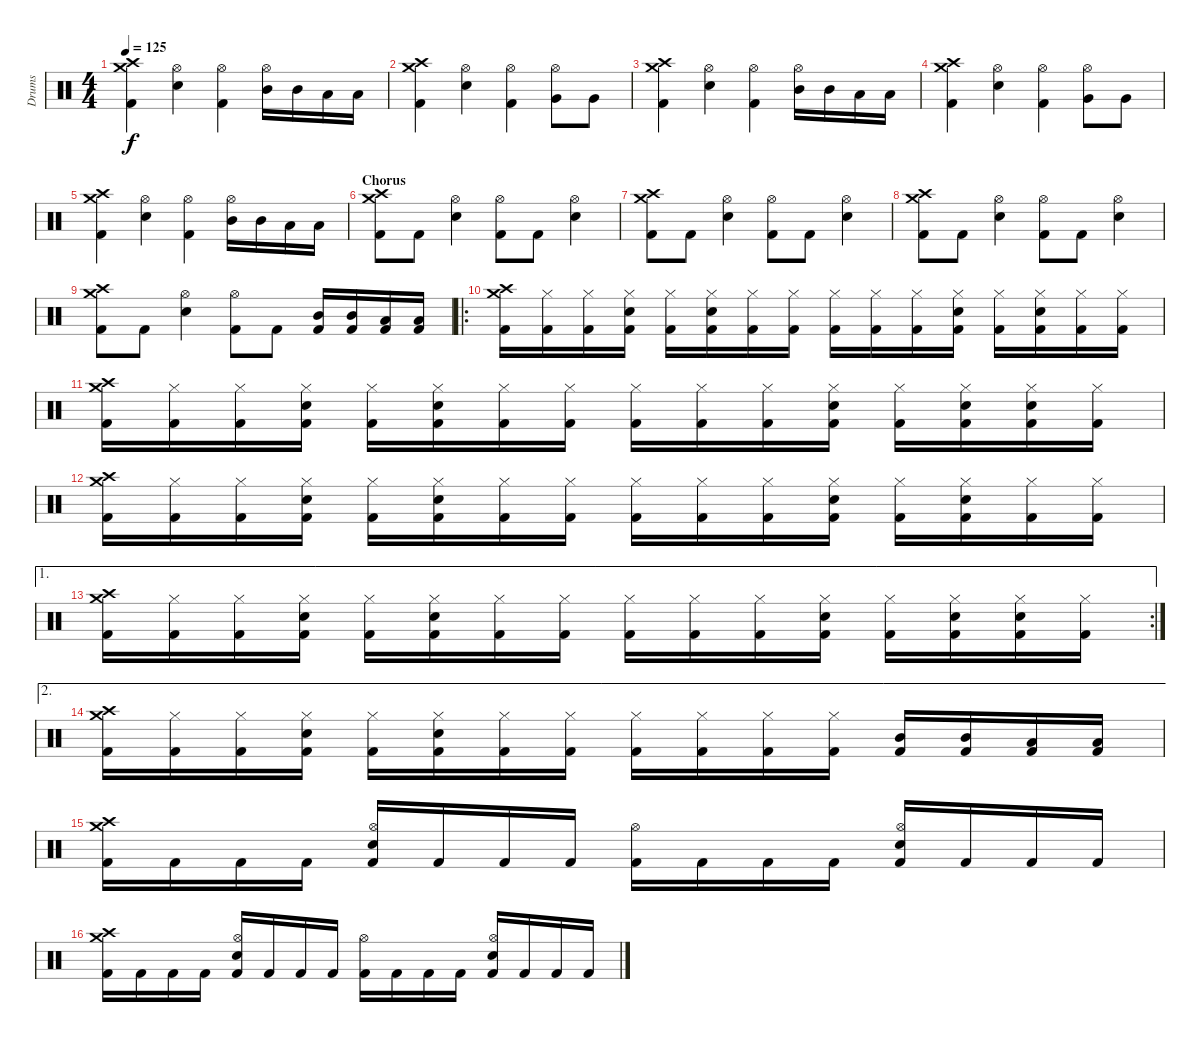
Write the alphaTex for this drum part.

\track ("Drums" "Drums") {instrument percussion}
\staff {score}
\articulation defaults
\ts (4 4)
\tempo 125
\clef neutral
\ks c
("Crash medium (hit)" "Crash high (hit)" "Kick (hit) 2").4{dy f} ("Hi-Hat (open)" "Snare (hit) 2").4 ("Hi-Hat (open)" "Kick (hit) 2").4 ("Hi-Hat (open)" "Mid Tom (hit)").16 "Mid Tom (hit)".16 "Low Tom (hit)".16 "Low Tom (hit)".16 |
("Crash medium (hit)" "Crash high (hit)" "Kick (hit) 2").4 ("Hi-Hat (open)" "Snare (hit) 2").4 ("Hi-Hat (open)" "Kick (hit) 2").4 ("Hi-Hat (open)" "Very Low Tom (hit)").8 "Very Low Tom (hit)".8 |
("Crash medium (hit)" "Crash high (hit)" "Kick (hit) 2").4 ("Hi-Hat (open)" "Snare (hit) 2").4 ("Hi-Hat (open)" "Kick (hit) 2").4 ("Hi-Hat (open)" "Mid Tom (hit)").16 "Mid Tom (hit)".16 "Low Tom (hit)".16 "Low Tom (hit)".16 |
("Crash medium (hit)" "Crash high (hit)" "Kick (hit) 2").4 ("Hi-Hat (open)" "Snare (hit) 2").4 ("Hi-Hat (open)" "Kick (hit) 2").4 ("Hi-Hat (open)" "Very Low Tom (hit)").8 "Very Low Tom (hit)".8 |
("Crash medium (hit)" "Crash high (hit)" "Kick (hit) 2").4 ("Hi-Hat (open)" "Snare (hit) 2").4 ("Hi-Hat (open)" "Kick (hit) 2").4 ("Hi-Hat (open)" "Mid Tom (hit)").16 "Mid Tom (hit)".16 "Low Tom (hit)".16 "Low Tom (hit)".16 |
\section ("" "Chorus")
("Crash medium (hit)" "Crash high (hit)" "Kick (hit) 2").8 "Kick (hit) 2".8 ("Hi-Hat (open)" "Snare (hit) 2").4 ("Hi-Hat (open)" "Kick (hit) 2").8 "Kick (hit) 2".8 ("Hi-Hat (open)" "Snare (hit) 2").4 |
("Crash medium (hit)" "Crash high (hit)" "Kick (hit) 2").8 "Kick (hit) 2".8 ("Hi-Hat (open)" "Snare (hit) 2").4 ("Hi-Hat (open)" "Kick (hit) 2").8 "Kick (hit) 2".8 ("Hi-Hat (open)" "Snare (hit) 2").4 |
("Crash medium (hit)" "Crash high (hit)" "Kick (hit) 2").8 "Kick (hit) 2".8 ("Hi-Hat (open)" "Snare (hit) 2").4 ("Hi-Hat (open)" "Kick (hit) 2").8 "Kick (hit) 2".8 ("Hi-Hat (open)" "Snare (hit) 2").4 |
("Crash medium (hit)" "Crash high (hit)" "Kick (hit) 2").8 "Kick (hit) 2".8 ("Hi-Hat (open)" "Snare (hit) 2").4 ("Hi-Hat (open)" "Kick (hit) 2").8 "Kick (hit) 2".8 ("Mid Tom (hit)" "Kick (hit) 2").16 ("Mid Tom (hit)" "Kick (hit) 2").16 ("Low Tom (hit)" "Kick (hit) 2").16 ("Low Tom (hit)" "Kick (hit) 2").16 |
\ro
("Crash medium (hit)" "Crash high (hit)" "Kick (hit) 2").16 ("Hi-Hat (closed)" "Kick (hit) 2").16 ("Hi-Hat (closed)" "Kick (hit) 2").16 ("Hi-Hat (closed)" "Snare (hit) 2" "Kick (hit) 2").16 ("Hi-Hat (closed)" "Kick (hit) 2").16 ("Hi-Hat (closed)" "Snare (hit) 2" "Kick (hit) 2").16 ("Hi-Hat (closed)" "Kick (hit) 2").16 ("Hi-Hat (closed)" "Kick (hit) 2").16 ("Hi-Hat (closed)" "Kick (hit) 2").16 ("Hi-Hat (closed)" "Kick (hit) 2").16 ("Hi-Hat (closed)" "Kick (hit) 2").16 ("Hi-Hat (closed)" "Snare (hit) 2" "Kick (hit) 2").16 ("Hi-Hat (closed)" "Kick (hit) 2").16 ("Hi-Hat (closed)" "Snare (hit) 2" "Kick (hit) 2").16 ("Hi-Hat (closed)" "Kick (hit) 2").16 ("Hi-Hat (closed)" "Kick (hit) 2").16 |
("Crash medium (hit)" "Crash high (hit)" "Kick (hit) 2").16 ("Hi-Hat (closed)" "Kick (hit) 2").16 ("Hi-Hat (closed)" "Kick (hit) 2").16 ("Hi-Hat (closed)" "Snare (hit) 2" "Kick (hit) 2").16 ("Hi-Hat (closed)" "Kick (hit) 2").16 ("Hi-Hat (closed)" "Snare (hit) 2" "Kick (hit) 2").16 ("Hi-Hat (closed)" "Kick (hit) 2").16 ("Hi-Hat (closed)" "Kick (hit) 2").16 ("Hi-Hat (closed)" "Kick (hit) 2").16 ("Hi-Hat (closed)" "Kick (hit) 2").16 ("Hi-Hat (closed)" "Kick (hit) 2").16 ("Hi-Hat (closed)" "Snare (hit) 2" "Kick (hit) 2").16 ("Hi-Hat (closed)" "Kick (hit) 2").16 ("Hi-Hat (closed)" "Snare (hit) 2" "Kick (hit) 2").16 ("Hi-Hat (closed)" "Snare (hit) 2" "Kick (hit) 2").16 ("Hi-Hat (closed)" "Kick (hit) 2").16 |
("Crash medium (hit)" "Crash high (hit)" "Kick (hit) 2").16 ("Hi-Hat (closed)" "Kick (hit) 2").16 ("Hi-Hat (closed)" "Kick (hit) 2").16 ("Hi-Hat (closed)" "Snare (hit) 2" "Kick (hit) 2").16 ("Hi-Hat (closed)" "Kick (hit) 2").16 ("Hi-Hat (closed)" "Snare (hit) 2" "Kick (hit) 2").16 ("Hi-Hat (closed)" "Kick (hit) 2").16 ("Hi-Hat (closed)" "Kick (hit) 2").16 ("Hi-Hat (closed)" "Kick (hit) 2").16 ("Hi-Hat (closed)" "Kick (hit) 2").16 ("Hi-Hat (closed)" "Kick (hit) 2").16 ("Hi-Hat (closed)" "Snare (hit) 2" "Kick (hit) 2").16 ("Hi-Hat (closed)" "Kick (hit) 2").16 ("Hi-Hat (closed)" "Snare (hit) 2" "Kick (hit) 2").16 ("Hi-Hat (closed)" "Kick (hit) 2").16 ("Hi-Hat (closed)" "Kick (hit) 2").16 |
\ae 1
\rc 2
("Crash medium (hit)" "Crash high (hit)" "Kick (hit) 2").16 ("Hi-Hat (closed)" "Kick (hit) 2").16 ("Hi-Hat (closed)" "Kick (hit) 2").16 ("Hi-Hat (closed)" "Snare (hit) 2" "Kick (hit) 2").16 ("Hi-Hat (closed)" "Kick (hit) 2").16 ("Hi-Hat (closed)" "Snare (hit) 2" "Kick (hit) 2").16 ("Hi-Hat (closed)" "Kick (hit) 2").16 ("Hi-Hat (closed)" "Kick (hit) 2").16 ("Hi-Hat (closed)" "Kick (hit) 2").16 ("Hi-Hat (closed)" "Kick (hit) 2").16 ("Hi-Hat (closed)" "Kick (hit) 2").16 ("Hi-Hat (closed)" "Snare (hit) 2" "Kick (hit) 2").16 ("Hi-Hat (closed)" "Kick (hit) 2").16 ("Hi-Hat (closed)" "Snare (hit) 2" "Kick (hit) 2").16 ("Hi-Hat (closed)" "Snare (hit) 2" "Kick (hit) 2").16 ("Hi-Hat (closed)" "Kick (hit) 2").16 |
\ae 2
("Crash medium (hit)" "Crash high (hit)" "Kick (hit) 2").16 ("Hi-Hat (closed)" "Kick (hit) 2").16 ("Hi-Hat (closed)" "Kick (hit) 2").16 ("Hi-Hat (closed)" "Snare (hit) 2" "Kick (hit) 2").16 ("Hi-Hat (closed)" "Kick (hit) 2").16 ("Hi-Hat (closed)" "Snare (hit) 2" "Kick (hit) 2").16 ("Hi-Hat (closed)" "Kick (hit) 2").16 ("Hi-Hat (closed)" "Kick (hit) 2").16 ("Hi-Hat (closed)" "Kick (hit) 2").16 ("Hi-Hat (closed)" "Kick (hit) 2").16 ("Hi-Hat (closed)" "Kick (hit) 2").16 ("Hi-Hat (closed)" "Kick (hit) 2").16 ("Mid Tom (hit)" "Kick (hit) 2").16 ("Mid Tom (hit)" "Kick (hit) 2").16 ("Low Tom (hit)" "Kick (hit) 2").16 ("Low Tom (hit)" "Kick (hit) 2").16 |
("Crash medium (hit)" "Crash high (hit)" "Kick (hit) 2").16 "Kick (hit) 2".16 "Kick (hit) 2".16 "Kick (hit) 2".16 ("Hi-Hat (open)" "Snare (hit) 2" "Kick (hit) 2").16 "Kick (hit) 2".16 "Kick (hit) 2".16 "Kick (hit) 2".16 ("Hi-Hat (open)" "Kick (hit) 2").16 "Kick (hit) 2".16 "Kick (hit) 2".16 "Kick (hit) 2".16 ("Hi-Hat (open)" "Snare (hit) 2" "Kick (hit) 2").16 "Kick (hit) 2".16 "Kick (hit) 2".16 "Kick (hit) 2".16 |
("Crash medium (hit)" "Crash high (hit)" "Kick (hit) 2").16 "Kick (hit) 2".16 "Kick (hit) 2".16 "Kick (hit) 2".16 ("Hi-Hat (open)" "Snare (hit) 2" "Kick (hit) 2").16 "Kick (hit) 2".16 "Kick (hit) 2".16 "Kick (hit) 2".16 ("Hi-Hat (open)" "Kick (hit) 2").16 "Kick (hit) 2".16 "Kick (hit) 2".16 "Kick (hit) 2".16 ("Hi-Hat (open)" "Snare (hit) 2" "Kick (hit) 2").16 "Kick (hit) 2".16 "Kick (hit) 2".16 "Kick (hit) 2".16
